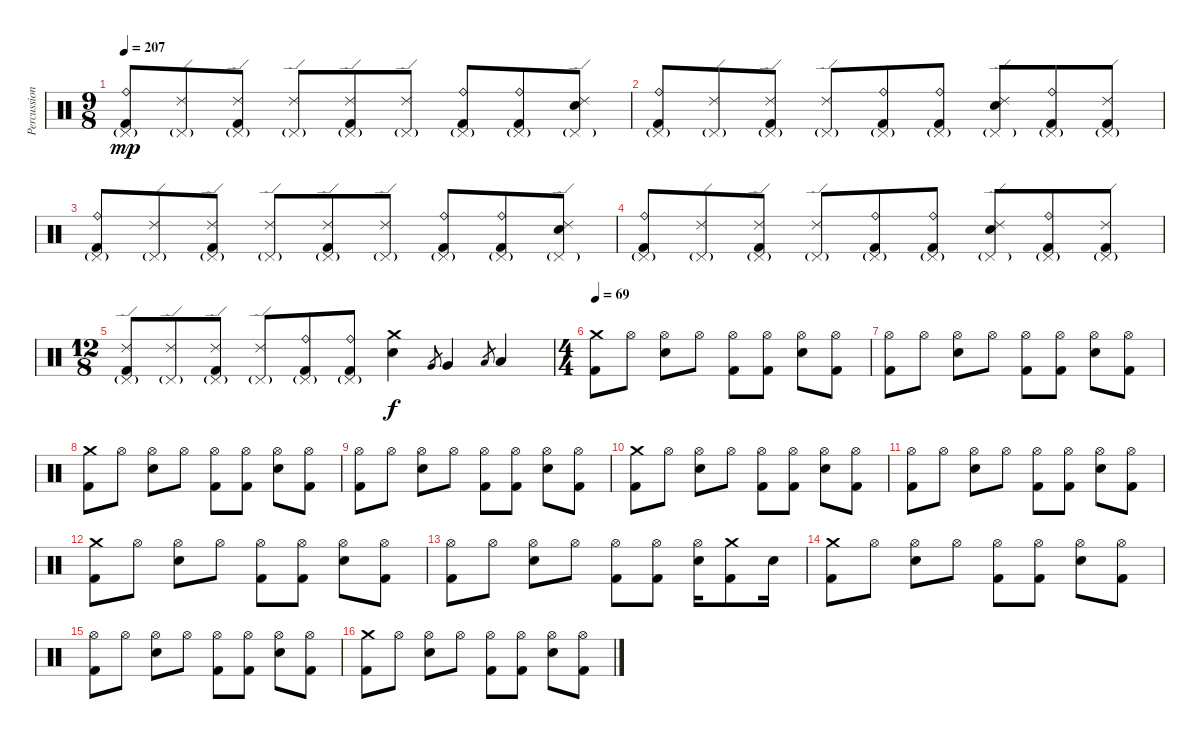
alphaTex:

\track ("Percussion" "Percussion") {instrument percussion}
\staff {score}
\articulation defaults
\ts (9 8)
\tempo 207
\clef neutral
\ks c
("Ride (bell)" "Pedal Hi-Hat (hit)"{g} "Kick (hit) 2").8{dy mp} ("Ride (edge) 2" "Pedal Hi-Hat (hit)"{g}).8 ("Ride (edge) 2" "Pedal Hi-Hat (hit)"{g} "Kick (hit) 2").8 ("Ride (edge) 2" "Pedal Hi-Hat (hit)"{g}).8 ("Ride (edge) 2" "Pedal Hi-Hat (hit)"{g} "Kick (hit) 2").8 ("Ride (edge) 2" "Pedal Hi-Hat (hit)"{g}).8 ("Ride (bell)" "Pedal Hi-Hat (hit)"{g} "Kick (hit) 2").8 ("Ride (bell)" "Pedal Hi-Hat (hit)"{g} "Kick (hit) 2").8 ("Ride (edge) 2" "Pedal Hi-Hat (hit)"{g} "Electric Snare (hit)").8 |
("Ride (bell)" "Pedal Hi-Hat (hit)"{g} "Kick (hit) 2").8 ("Ride (edge) 2" "Pedal Hi-Hat (hit)"{g}).8 ("Ride (edge) 2" "Pedal Hi-Hat (hit)"{g} "Kick (hit) 2").8 ("Ride (edge) 2" "Pedal Hi-Hat (hit)"{g}).8 ("Ride (bell)" "Pedal Hi-Hat (hit)"{g} "Kick (hit) 2").8 ("Ride (bell)" "Pedal Hi-Hat (hit)"{g} "Kick (hit) 2").8 ("Ride (edge) 2" "Pedal Hi-Hat (hit)"{g} "Electric Snare (hit)").8 ("Ride (bell)" "Pedal Hi-Hat (hit)"{g} "Kick (hit) 2").8 ("Ride (edge) 2" "Pedal Hi-Hat (hit)"{g} "Kick (hit) 2").8 |
("Ride (bell)" "Pedal Hi-Hat (hit)"{g} "Kick (hit) 2").8 ("Ride (edge) 2" "Pedal Hi-Hat (hit)"{g}).8 ("Ride (edge) 2" "Pedal Hi-Hat (hit)"{g} "Kick (hit) 2").8 ("Ride (edge) 2" "Pedal Hi-Hat (hit)"{g}).8 ("Ride (edge) 2" "Pedal Hi-Hat (hit)"{g} "Kick (hit) 2").8 ("Ride (edge) 2" "Pedal Hi-Hat (hit)"{g}).8 ("Ride (bell)" "Pedal Hi-Hat (hit)"{g} "Kick (hit) 2").8 ("Ride (bell)" "Pedal Hi-Hat (hit)"{g} "Kick (hit) 2").8 ("Ride (edge) 2" "Pedal Hi-Hat (hit)"{g} "Electric Snare (hit)").8 |
("Ride (bell)" "Pedal Hi-Hat (hit)"{g} "Kick (hit) 2").8 ("Ride (edge) 2" "Pedal Hi-Hat (hit)"{g}).8 ("Ride (edge) 2" "Pedal Hi-Hat (hit)"{g} "Kick (hit) 2").8 ("Ride (edge) 2" "Pedal Hi-Hat (hit)"{g}).8 ("Ride (bell)" "Pedal Hi-Hat (hit)"{g} "Kick (hit) 2").8 ("Ride (bell)" "Pedal Hi-Hat (hit)"{g} "Kick (hit) 2").8 ("Ride (edge) 2" "Pedal Hi-Hat (hit)"{g} "Electric Snare (hit)").8 ("Ride (bell)" "Pedal Hi-Hat (hit)"{g} "Kick (hit) 2").8 ("Ride (edge) 2" "Pedal Hi-Hat (hit)"{g} "Kick (hit) 2").8 |
\ts (12 8)
("Ride (edge) 2" "Pedal Hi-Hat (hit)"{g} "Kick (hit) 2").8 ("Ride (edge) 2" "Pedal Hi-Hat (hit)"{g}).8 ("Ride (edge) 2" "Pedal Hi-Hat (hit)"{g} "Kick (hit) 2").8 ("Ride (edge) 2" "Pedal Hi-Hat (hit)"{g}).8 ("Ride (bell)" "Pedal Hi-Hat (hit)"{g} "Kick (hit) 2").8 ("Ride (bell)" "Pedal Hi-Hat (hit)"{g} "Kick (hit) 2").8 ("Crash medium (hit)" "Electric Snare (hit)").4{dy f} "Very Low Tom (hit)".8{gr} "Very Low Tom (hit)".4 "Low Floor Tom (hit)".8{gr} "Low Floor Tom (hit)".4 |
\ts (4 4)
\tempo 69
("Crash medium (hit)" "Kick (hit) 2").8 "Hi-Hat (open)".8 ("Hi-Hat (open)" "Electric Snare (hit)").8 "Hi-Hat (open)".8 ("Hi-Hat (open)" "Kick (hit) 2").8 ("Hi-Hat (open)" "Kick (hit) 2").8 ("Hi-Hat (open)" "Electric Snare (hit)").8 ("Hi-Hat (open)" "Kick (hit) 2").8 |
("Hi-Hat (open)" "Kick (hit) 2").8 "Hi-Hat (open)".8 ("Hi-Hat (open)" "Electric Snare (hit)").8 "Hi-Hat (open)".8 ("Hi-Hat (open)" "Kick (hit) 2").8 ("Hi-Hat (open)" "Kick (hit) 2").8 ("Hi-Hat (open)" "Electric Snare (hit)").8 ("Hi-Hat (open)" "Kick (hit) 2").8 |
("Crash medium (hit)" "Kick (hit) 2").8 "Hi-Hat (open)".8 ("Hi-Hat (open)" "Electric Snare (hit)").8 "Hi-Hat (open)".8 ("Hi-Hat (open)" "Kick (hit) 2").8 ("Hi-Hat (open)" "Kick (hit) 2").8 ("Hi-Hat (open)" "Electric Snare (hit)").8 ("Hi-Hat (open)" "Kick (hit) 2").8 |
("Hi-Hat (open)" "Kick (hit) 2").8 "Hi-Hat (open)".8 ("Hi-Hat (open)" "Electric Snare (hit)").8 "Hi-Hat (open)".8 ("Hi-Hat (open)" "Kick (hit) 2").8 ("Hi-Hat (open)" "Kick (hit) 2").8 ("Hi-Hat (open)" "Electric Snare (hit)").8 ("Hi-Hat (open)" "Kick (hit) 2").8 |
("Crash medium (hit)" "Kick (hit) 2").8 "Hi-Hat (open)".8 ("Hi-Hat (open)" "Electric Snare (hit)").8 "Hi-Hat (open)".8 ("Hi-Hat (open)" "Kick (hit) 2").8 ("Hi-Hat (open)" "Kick (hit) 2").8 ("Hi-Hat (open)" "Electric Snare (hit)").8 ("Hi-Hat (open)" "Kick (hit) 2").8 |
("Hi-Hat (open)" "Kick (hit) 2").8 "Hi-Hat (open)".8 ("Hi-Hat (open)" "Electric Snare (hit)").8 "Hi-Hat (open)".8 ("Hi-Hat (open)" "Kick (hit) 2").8 ("Hi-Hat (open)" "Kick (hit) 2").8 ("Hi-Hat (open)" "Electric Snare (hit)").8 ("Hi-Hat (open)" "Kick (hit) 2").8 |
("Crash medium (hit)" "Kick (hit) 2").8 "Hi-Hat (open)".8 ("Hi-Hat (open)" "Electric Snare (hit)").8 "Hi-Hat (open)".8 ("Hi-Hat (open)" "Kick (hit) 2").8 ("Hi-Hat (open)" "Kick (hit) 2").8 ("Hi-Hat (open)" "Electric Snare (hit)").8 ("Hi-Hat (open)" "Kick (hit) 2").8 |
("Hi-Hat (open)" "Kick (hit) 2").8 "Hi-Hat (open)".8 ("Hi-Hat (open)" "Electric Snare (hit)").8 "Hi-Hat (open)".8 ("Hi-Hat (open)" "Kick (hit) 2").8 ("Hi-Hat (open)" "Kick (hit) 2").8 ("Hi-Hat (open)" "Electric Snare (hit)").16 ("Crash medium (hit)" "Kick (hit) 2").8 "Electric Snare (hit)".16 |
("Crash medium (hit)" "Kick (hit) 2").8 "Hi-Hat (open)".8 ("Hi-Hat (open)" "Electric Snare (hit)").8 "Hi-Hat (open)".8 ("Hi-Hat (open)" "Kick (hit) 2").8 ("Hi-Hat (open)" "Kick (hit) 2").8 ("Hi-Hat (open)" "Electric Snare (hit)").8 ("Hi-Hat (open)" "Kick (hit) 2").8 |
("Hi-Hat (open)" "Kick (hit) 2").8 "Hi-Hat (open)".8 ("Hi-Hat (open)" "Electric Snare (hit)").8 "Hi-Hat (open)".8 ("Hi-Hat (open)" "Kick (hit) 2").8 ("Hi-Hat (open)" "Kick (hit) 2").8 ("Hi-Hat (open)" "Electric Snare (hit)").8 ("Hi-Hat (open)" "Kick (hit) 2").8 |
("Crash medium (hit)" "Kick (hit) 2").8 "Hi-Hat (open)".8 ("Hi-Hat (open)" "Electric Snare (hit)").8 "Hi-Hat (open)".8 ("Hi-Hat (open)" "Kick (hit) 2").8 ("Hi-Hat (open)" "Kick (hit) 2").8 ("Hi-Hat (open)" "Electric Snare (hit)").8 ("Hi-Hat (open)" "Kick (hit) 2").8
